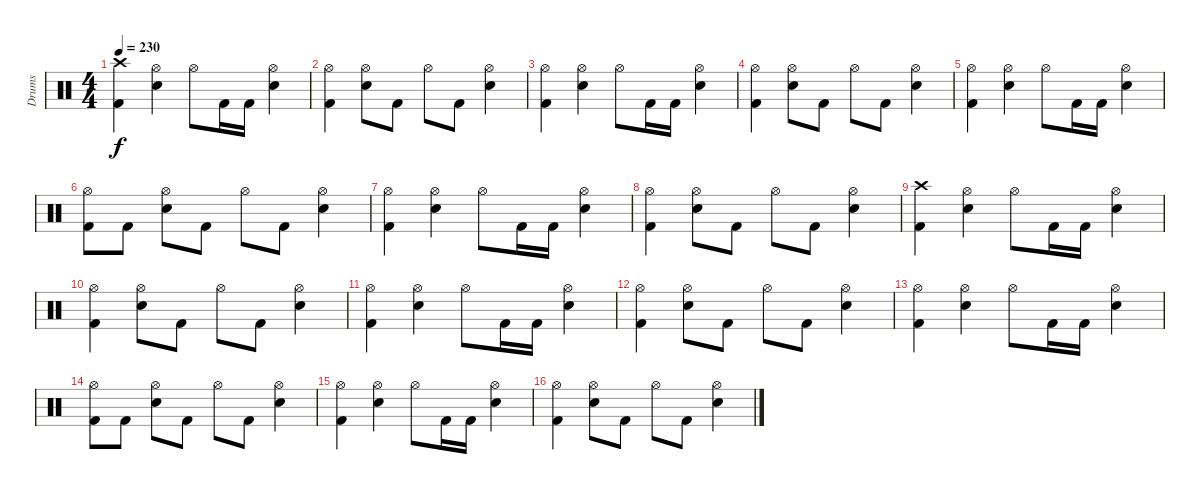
\track ("Drums" "Drums") {instrument percussion}
\staff {score}
\articulation defaults
\ts (4 4)
\tempo 230
\clef neutral
\ks c
("Crash high (hit)" "Kick (hit) 2").4{dy f} ("Hi-Hat (open)" "Electric Snare (hit)").4 "Hi-Hat (open)".8 "Kick (hit) 2".16 "Kick (hit) 2".16 ("Hi-Hat (open)" "Electric Snare (hit)").4 |
("Hi-Hat (open)" "Kick (hit) 2").4 ("Hi-Hat (open)" "Electric Snare (hit)").8 "Kick (hit) 2".8 "Hi-Hat (open)".8 "Kick (hit) 2".8 ("Hi-Hat (open)" "Electric Snare (hit)").4 |
("Hi-Hat (open)" "Kick (hit) 2").4 ("Hi-Hat (open)" "Electric Snare (hit)").4 "Hi-Hat (open)".8 "Kick (hit) 2".16 "Kick (hit) 2".16 ("Hi-Hat (open)" "Electric Snare (hit)").4 |
("Hi-Hat (open)" "Kick (hit) 2").4 ("Hi-Hat (open)" "Electric Snare (hit)").8 "Kick (hit) 2".8 "Hi-Hat (open)".8 "Kick (hit) 2".8 ("Hi-Hat (open)" "Electric Snare (hit)").4 |
("Hi-Hat (open)" "Kick (hit) 2").4 ("Hi-Hat (open)" "Electric Snare (hit)").4 "Hi-Hat (open)".8 "Kick (hit) 2".16 "Kick (hit) 2".16 ("Hi-Hat (open)" "Electric Snare (hit)").4 |
("Hi-Hat (open)" "Kick (hit) 2").8 "Kick (hit) 2".8 ("Hi-Hat (open)" "Electric Snare (hit)").8 "Kick (hit) 2".8 "Hi-Hat (open)".8 "Kick (hit) 2".8 ("Hi-Hat (open)" "Electric Snare (hit)").4 |
("Hi-Hat (open)" "Kick (hit) 2").4 ("Hi-Hat (open)" "Electric Snare (hit)").4 "Hi-Hat (open)".8 "Kick (hit) 2".16 "Kick (hit) 2".16 ("Hi-Hat (open)" "Electric Snare (hit)").4 |
("Hi-Hat (open)" "Kick (hit) 2").4 ("Hi-Hat (open)" "Electric Snare (hit)").8 "Kick (hit) 2".8 "Hi-Hat (open)".8 "Kick (hit) 2".8 ("Hi-Hat (open)" "Electric Snare (hit)").4 |
("Crash high (hit)" "Kick (hit) 2").4 ("Hi-Hat (open)" "Electric Snare (hit)").4 "Hi-Hat (open)".8 "Kick (hit) 2".16 "Kick (hit) 2".16 ("Hi-Hat (open)" "Electric Snare (hit)").4 |
("Hi-Hat (open)" "Kick (hit) 2").4 ("Hi-Hat (open)" "Electric Snare (hit)").8 "Kick (hit) 2".8 "Hi-Hat (open)".8 "Kick (hit) 2".8 ("Hi-Hat (open)" "Electric Snare (hit)").4 |
("Hi-Hat (open)" "Kick (hit) 2").4 ("Hi-Hat (open)" "Electric Snare (hit)").4 "Hi-Hat (open)".8 "Kick (hit) 2".16 "Kick (hit) 2".16 ("Hi-Hat (open)" "Electric Snare (hit)").4 |
("Hi-Hat (open)" "Kick (hit) 2").4 ("Hi-Hat (open)" "Electric Snare (hit)").8 "Kick (hit) 2".8 "Hi-Hat (open)".8 "Kick (hit) 2".8 ("Hi-Hat (open)" "Electric Snare (hit)").4 |
("Hi-Hat (open)" "Kick (hit) 2").4 ("Hi-Hat (open)" "Electric Snare (hit)").4 "Hi-Hat (open)".8 "Kick (hit) 2".16 "Kick (hit) 2".16 ("Hi-Hat (open)" "Electric Snare (hit)").4 |
("Hi-Hat (open)" "Kick (hit) 2").8 "Kick (hit) 2".8 ("Hi-Hat (open)" "Electric Snare (hit)").8 "Kick (hit) 2".8 "Hi-Hat (open)".8 "Kick (hit) 2".8 ("Hi-Hat (open)" "Electric Snare (hit)").4 |
("Hi-Hat (open)" "Kick (hit) 2").4 ("Hi-Hat (open)" "Electric Snare (hit)").4 "Hi-Hat (open)".8 "Kick (hit) 2".16 "Kick (hit) 2".16 ("Hi-Hat (open)" "Electric Snare (hit)").4 |
("Hi-Hat (open)" "Kick (hit) 2").4 ("Hi-Hat (open)" "Electric Snare (hit)").8 "Kick (hit) 2".8 "Hi-Hat (open)".8 "Kick (hit) 2".8 ("Hi-Hat (open)" "Electric Snare (hit)").4
